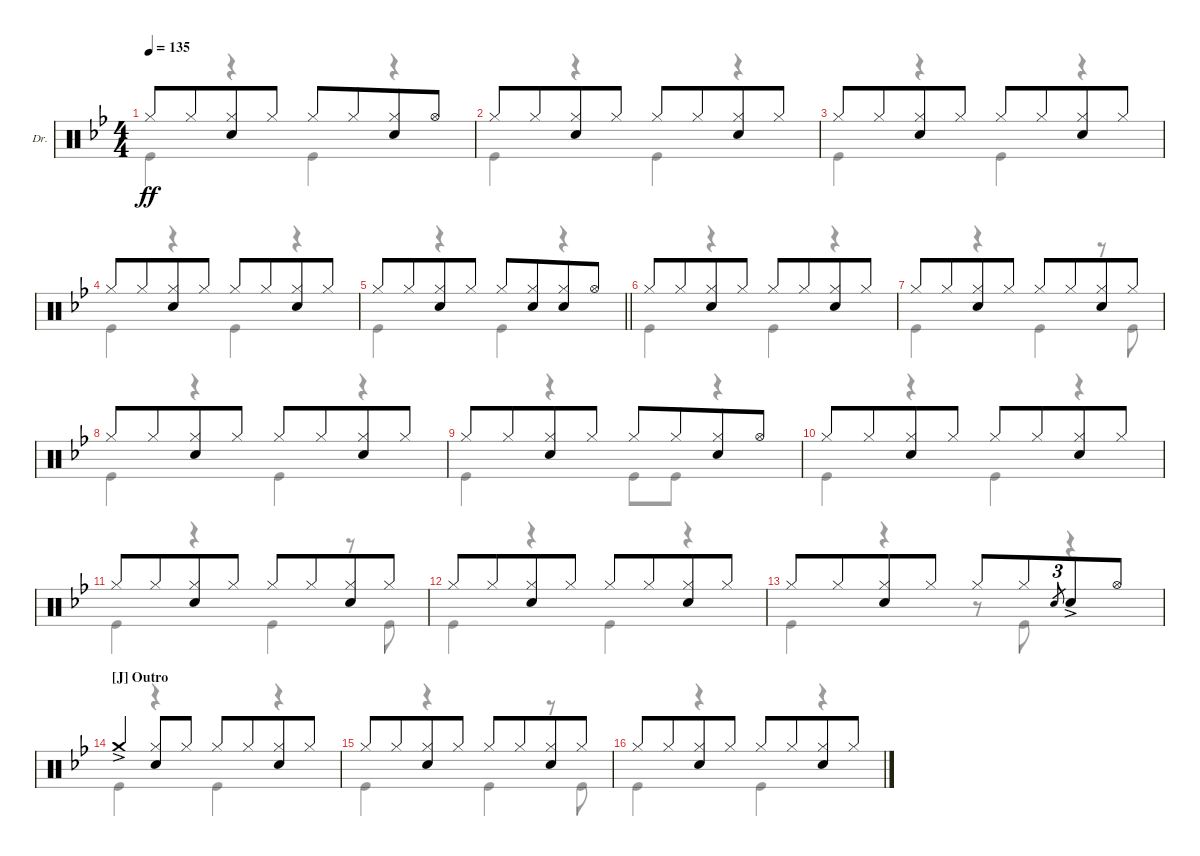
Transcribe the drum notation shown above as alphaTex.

\defaultSystemsLayout 4
\bracketExtendMode groupsimilarinstruments
\firstSystemTrackNameOrientation horizontal
\otherSystemsTrackNameOrientation horizontal
\track ("Drums" "Dr.") {instrument percussion}
\staff {score}
\articulation defaults
\voice
\ts (4 4)
\tempo 135
\clef neutral
\ks bb "Hi-Hat (closed)".8{dy ff beam merge} "Hi-Hat (closed)".8{beam merge}
("Hi-Hat (closed)" "Snare (hit) 2").8{beam merge} "Hi-Hat (closed)".8 "Hi-Hat (closed)".8{beam merge} "Hi-Hat (closed)".8{beam merge} ("Hi-Hat (closed)" "Snare (hit) 2").8{beam merge} "Hi-Hat (open)".8 |
"Hi-Hat (closed)".8{beam merge} "Hi-Hat (closed)".8{beam merge} ("Hi-Hat (closed)" "Snare (hit) 2").8{beam merge} "Hi-Hat (closed)".8 "Hi-Hat (closed)".8{beam merge} "Hi-Hat (closed)".8{beam merge} ("Hi-Hat (closed)" "Snare (hit) 2").8{beam merge} "Hi-Hat (closed)".8 |
"Hi-Hat (closed)".8{beam merge} "Hi-Hat (closed)".8{beam merge} ("Hi-Hat (closed)" "Snare (hit) 2").8{beam merge} "Hi-Hat (closed)".8 "Hi-Hat (closed)".8{beam merge} "Hi-Hat (closed)".8{beam merge} ("Hi-Hat (closed)" "Snare (hit) 2").8{beam merge} "Hi-Hat (closed)".8 |
"Hi-Hat (closed)".8{beam merge} "Hi-Hat (closed)".8{beam merge} ("Hi-Hat (closed)" "Snare (hit) 2").8{beam merge} "Hi-Hat (closed)".8 "Hi-Hat (closed)".8{beam merge} "Hi-Hat (closed)".8{beam merge} ("Hi-Hat (closed)" "Snare (hit) 2").8{beam merge} "Hi-Hat (closed)".8 |
\barLineRight lightlight "Hi-Hat (closed)".8{beam merge} "Hi-Hat (closed)".8{beam merge}
("Hi-Hat (closed)" "Snare (hit) 2").8{beam merge} "Hi-Hat (closed)".8 "Hi-Hat (closed)".8{beam merge} ("Hi-Hat (closed)" "Snare (hit) 2").8{beam merge} ("Hi-Hat (closed)" "Snare (hit) 2").8{beam merge} "Hi-Hat (open)".8 |
"Hi-Hat (closed)".8{beam merge} "Hi-Hat (closed)".8{beam merge} ("Hi-Hat (closed)" "Snare (hit) 2").8{beam merge} "Hi-Hat (closed)".8 "Hi-Hat (closed)".8{beam merge} "Hi-Hat (closed)".8{beam merge} ("Hi-Hat (closed)" "Snare (hit) 2").8{beam merge} "Hi-Hat (closed)".8 |
"Hi-Hat (closed)".8{beam merge} "Hi-Hat (closed)".8{beam merge} ("Hi-Hat (closed)" "Snare (hit) 2").8{beam merge} "Hi-Hat (closed)".8 "Hi-Hat (closed)".8{beam merge} "Hi-Hat (closed)".8{beam merge} ("Hi-Hat (closed)" "Snare (hit) 2").8{beam merge} "Hi-Hat (closed)".8 |
"Hi-Hat (closed)".8{beam merge} "Hi-Hat (closed)".8{beam merge} ("Hi-Hat (closed)" "Snare (hit) 2").8{beam merge} "Hi-Hat (closed)".8 "Hi-Hat (closed)".8{beam merge} "Hi-Hat (closed)".8{beam merge} ("Hi-Hat (closed)" "Snare (hit) 2").8{beam merge} "Hi-Hat (closed)".8 |
"Hi-Hat (closed)".8{beam merge} "Hi-Hat (closed)".8{beam merge} ("Hi-Hat (closed)" "Snare (hit) 2").8{beam merge} "Hi-Hat (closed)".8 "Hi-Hat (closed)".8{beam merge} "Hi-Hat (closed)".8{beam merge} ("Hi-Hat (closed)" "Snare (hit) 2").8{beam merge} "Hi-Hat (open)".8 |
"Hi-Hat (closed)".8{beam merge} "Hi-Hat (closed)".8{beam merge} ("Hi-Hat (closed)" "Snare (hit) 2").8{beam merge} "Hi-Hat (closed)".8 "Hi-Hat (closed)".8{beam merge} "Hi-Hat (closed)".8{beam merge} ("Hi-Hat (closed)" "Snare (hit) 2").8{beam merge} "Hi-Hat (closed)".8 |
"Hi-Hat (closed)".8{beam merge} "Hi-Hat (closed)".8{beam merge} ("Hi-Hat (closed)" "Snare (hit) 2").8{beam merge} "Hi-Hat (closed)".8 "Hi-Hat (closed)".8{beam merge} "Hi-Hat (closed)".8{beam merge} ("Hi-Hat (closed)" "Snare (hit) 2").8{beam merge} "Hi-Hat (closed)".8 |
"Hi-Hat (closed)".8{beam merge} "Hi-Hat (closed)".8{beam merge} ("Hi-Hat (closed)" "Snare (hit) 2").8{beam merge} "Hi-Hat (closed)".8 "Hi-Hat (closed)".8{beam merge} "Hi-Hat (closed)".8{beam merge} ("Hi-Hat (closed)" "Snare (hit) 2").8{beam merge} "Hi-Hat (closed)".8 |
"Hi-Hat (closed)".8{beam merge} "Hi-Hat (closed)".8{beam merge} ("Hi-Hat (closed)" "Snare (hit) 2").8{beam merge} "Hi-Hat (closed)".8 "Hi-Hat (closed)".8{beam merge} "Hi-Hat (closed)".8{beam merge} "Snare (hit) 2".8{tu (3 2) gr} "Snare (hit) 2"{ac}.8{beam merge} "Hi-Hat (open)".8 |
\section ("J" "Outro")
"Crash medium (hit)"{ac}.4{beam merge} ("Hi-Hat (closed)" "Snare (hit) 2").8{beam merge} "Hi-Hat (closed)".8 "Hi-Hat (closed)".8{beam merge} "Hi-Hat (closed)".8{beam merge} ("Hi-Hat (closed)" "Snare (hit) 2").8{beam merge} "Hi-Hat (closed)".8 |
"Hi-Hat (closed)".8{beam merge} "Hi-Hat (closed)".8{beam merge} ("Hi-Hat (closed)" "Snare (hit) 2").8{beam merge} "Hi-Hat (closed)".8 "Hi-Hat (closed)".8{beam merge} "Hi-Hat (closed)".8{beam merge} ("Hi-Hat (closed)" "Snare (hit) 2").8{beam merge} "Hi-Hat (closed)".8 |
"Hi-Hat (closed)".8{beam merge} "Hi-Hat (closed)".8{beam merge} ("Hi-Hat (closed)" "Snare (hit) 2").8{beam merge} "Hi-Hat (closed)".8 "Hi-Hat (closed)".8{beam merge} "Hi-Hat (closed)".8{beam merge} ("Hi-Hat (closed)" "Snare (hit) 2").8{beam merge} "Hi-Hat (closed)".8
\voice
\clef neutral
\ottava regular
\simile none
\ks bb "Kick (hit)".4{dy ff}
r.4 "Kick (hit)".4 r.4 |
"Kick (hit)".4 r.4 "Kick (hit)".4 r.4 |
"Kick (hit)".4 r.4 "Kick (hit)".4 r.4 |
"Kick (hit)".4 r.4 "Kick (hit)".4 r.4 |
\barLineRight lightlight "Kick (hit)".4
r.4 "Kick (hit)".4 r.4 |
"Kick (hit)".4 r.4 "Kick (hit)".4 r.4 |
"Kick (hit)".4 r.4 "Kick (hit)".4 r.8 "Kick (hit)".8 |
"Kick (hit)".4 r.4 "Kick (hit)".4 r.4 |
"Kick (hit)".4 r.4 "Kick (hit)".8 "Kick (hit)".8 r.4 |
"Kick (hit)".4 r.4 "Kick (hit)".4 r.4 |
"Kick (hit)".4 r.4 "Kick (hit)".4 r.8 "Kick (hit)".8 |
"Kick (hit)".4 r.4 "Kick (hit)".4 r.4 |
"Kick (hit)".4 r.4 r.8 "Kick (hit)".8 r.4 |
"Kick (hit)".4 r.4 "Kick (hit)".4 r.4 |
"Kick (hit)".4 r.4 "Kick (hit)".4 r.8 "Kick (hit)".8 |
"Kick (hit)".4 r.4 "Kick (hit)".4 r.4
